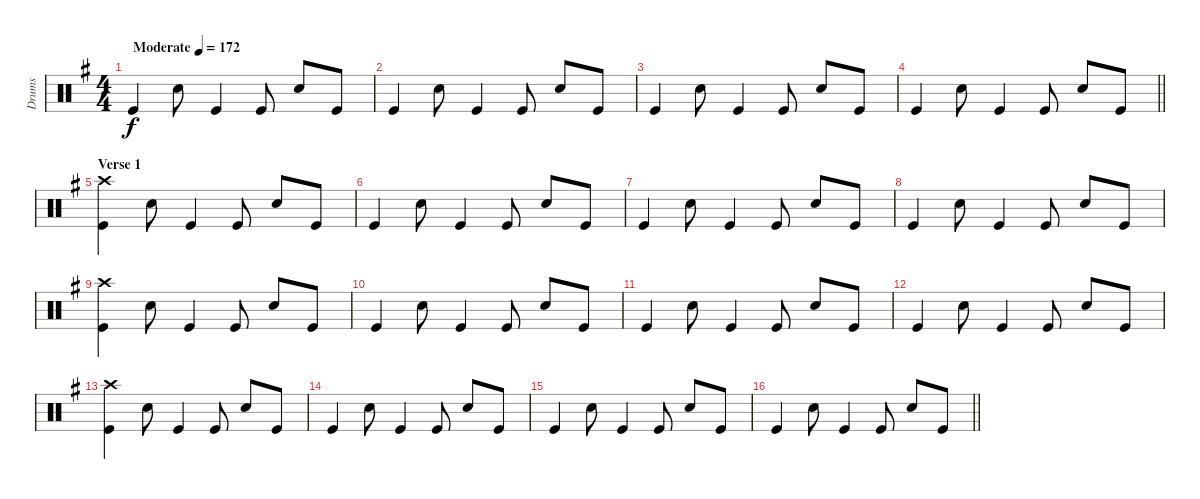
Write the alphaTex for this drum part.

\track ("Drums" "Drums") {instrument percussion}
\staff {score}
\articulation defaults
\ts (4 4)
\tempo (172 "Moderate")
\clef neutral
\ks g "Kick (hit)".4{dy f} "Snare (hit) 2".8 "Kick (hit)".4 "Kick (hit)".8 "Snare (hit) 2".8 "Kick (hit)".8
|
"Kick (hit)".4 "Snare (hit) 2".8 "Kick (hit)".4 "Kick (hit)".8 "Snare (hit) 2".8 "Kick (hit)".8 |
"Kick (hit)".4 "Snare (hit) 2".8 "Kick (hit)".4 "Kick (hit)".8 "Snare (hit) 2".8 "Kick (hit)".8 |
\barLineRight lightlight "Kick (hit)".4 "Snare (hit) 2".8 "Kick (hit)".4 "Kick (hit)".8 "Snare (hit) 2".8 "Kick (hit)".8
|
\section ("" "Verse 1")
("Crash high (hit)" "Kick (hit)").4 "Snare (hit) 2".8 "Kick (hit)".4 "Kick (hit)".8 "Snare (hit) 2".8 "Kick (hit)".8 |
"Kick (hit)".4 "Snare (hit) 2".8 "Kick (hit)".4 "Kick (hit)".8 "Snare (hit) 2".8 "Kick (hit)".8 |
"Kick (hit)".4 "Snare (hit) 2".8 "Kick (hit)".4 "Kick (hit)".8 "Snare (hit) 2".8 "Kick (hit)".8 |
"Kick (hit)".4 "Snare (hit) 2".8 "Kick (hit)".4 "Kick (hit)".8 "Snare (hit) 2".8 "Kick (hit)".8 |
("Crash high (hit)" "Kick (hit)").4 "Snare (hit) 2".8 "Kick (hit)".4 "Kick (hit)".8 "Snare (hit) 2".8 "Kick (hit)".8 |
"Kick (hit)".4 "Snare (hit) 2".8 "Kick (hit)".4 "Kick (hit)".8 "Snare (hit) 2".8 "Kick (hit)".8 |
"Kick (hit)".4 "Snare (hit) 2".8 "Kick (hit)".4 "Kick (hit)".8 "Snare (hit) 2".8 "Kick (hit)".8 |
"Kick (hit)".4 "Snare (hit) 2".8 "Kick (hit)".4 "Kick (hit)".8 "Snare (hit) 2".8 "Kick (hit)".8 |
("Crash high (hit)" "Kick (hit)").4 "Snare (hit) 2".8 "Kick (hit)".4 "Kick (hit)".8 "Snare (hit) 2".8 "Kick (hit)".8 |
"Kick (hit)".4 "Snare (hit) 2".8 "Kick (hit)".4 "Kick (hit)".8 "Snare (hit) 2".8 "Kick (hit)".8 |
"Kick (hit)".4 "Snare (hit) 2".8 "Kick (hit)".4 "Kick (hit)".8 "Snare (hit) 2".8 "Kick (hit)".8 |
\barLineRight lightlight "Kick (hit)".4 "Snare (hit) 2".8 "Kick (hit)".4 "Kick (hit)".8 "Snare (hit) 2".8 "Kick (hit)".8
